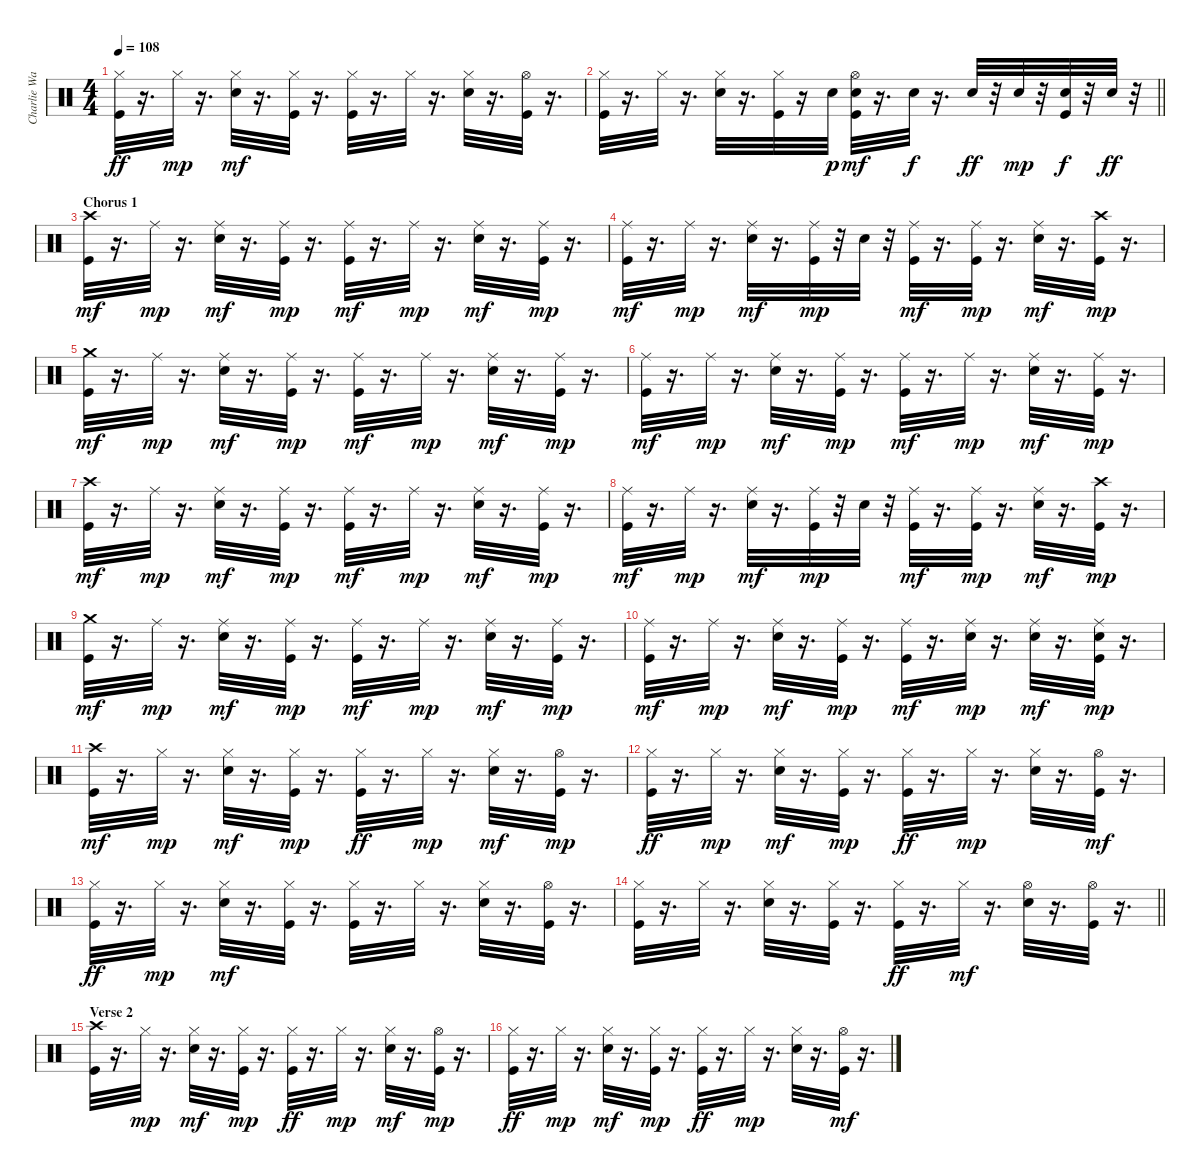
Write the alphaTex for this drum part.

\track ("Charlie Watts" "Charlie Wa") {instrument percussion}
\staff {score}
\articulation defaults
\ts (4 4)
\tempo 108
\clef neutral
\ks c
("Kick (hit)" "Hi-Hat (closed)").32{dy ff} r.16{d} "Hi-Hat (closed)".32{dy mp} r.16{d} ("Electric Snare (hit)" "Hi-Hat (closed)").32{dy mf} r.16{d} ("Kick (hit)" "Hi-Hat (closed)").32 r.16{d} ("Kick (hit)" "Hi-Hat (closed)").32 r.16{d} "Hi-Hat (closed)".32 r.16{d} ("Electric Snare (hit)" "Hi-Hat (closed)").32 r.16{d} ("Kick (hit)" "Hi-Hat (open)").32 r.16{d} |
\barLineRight lightlight
("Kick (hit)" "Hi-Hat (closed)").32 r.16{d} "Hi-Hat (closed)".32 r.16{d} ("Electric Snare (hit)" "Hi-Hat (closed)").32 r.16{d} ("Kick (hit)" "Hi-Hat (closed)").32 r.16 "Electric Snare (hit)".32{dy p} ("Kick (hit)" "Electric Snare (hit)" "Hi-Hat (open)").32{dy mf} r.16{d} "Electric Snare (hit)".32{dy f} r.16{d} "Electric Snare (hit)".32{dy ff} r.32 "Electric Snare (hit)".32{dy mp} r.32 ("Kick (hit)" "Electric Snare (hit)").32{dy f} r.32 "Electric Snare (hit)".32{dy ff} r.32 |
\section ("" "Chorus 1")
("Kick (hit)" "Crash high (hit)").32{dy mf} r.16{d} "Ride (middle)".32{dy mp} r.16{d} ("Electric Snare (hit)" "Ride (middle)").32{dy mf} r.16{d} ("Kick (hit)" "Ride (middle)").32{dy mp} r.16{d} ("Kick (hit)" "Ride (middle)").32{dy mf} r.16{d} "Ride (middle)".32{dy mp} r.16{d} ("Electric Snare (hit)" "Ride (middle)").32{dy mf} r.16{d} ("Kick (hit)" "Ride (middle)").32{dy mp} r.16{d} |
("Kick (hit)" "Ride (middle)").32{dy mf} r.16{d} "Ride (middle)".32{dy mp} r.16{d} ("Electric Snare (hit)" "Ride (middle)").32{dy mf} r.16{d} ("Kick (hit)" "Ride (middle)").32{dy mp} r.32 "Electric Snare (hit)".32 r.32 ("Kick (hit)" "Ride (middle)").32{dy mf} r.16{d} ("Kick (hit)" "Ride (middle)").32{dy mp} r.16{d} ("Electric Snare (hit)" "Ride (middle)").32{dy mf} r.16{d} ("Kick (hit)" "Crash high (hit)").32{dy mp} r.16{d} |
("Kick (hit)" "Crash medium (hit)").32{dy mf} r.16{d} "Ride (middle)".32{dy mp} r.16{d} ("Electric Snare (hit)" "Ride (middle)").32{dy mf} r.16{d} ("Kick (hit)" "Ride (middle)").32{dy mp} r.16{d} ("Kick (hit)" "Ride (middle)").32{dy mf} r.16{d} "Ride (middle)".32{dy mp} r.16{d} ("Electric Snare (hit)" "Ride (middle)").32{dy mf} r.16{d} ("Kick (hit)" "Ride (middle)").32{dy mp} r.16{d} |
("Kick (hit)" "Ride (middle)").32{dy mf} r.16{d} "Ride (middle)".32{dy mp} r.16{d} ("Electric Snare (hit)" "Ride (middle)").32{dy mf} r.16{d} ("Kick (hit)" "Ride (middle)").32{dy mp} r.16{d} ("Kick (hit)" "Ride (middle)").32{dy mf} r.16{d} "Ride (middle)".32{dy mp} r.16{d} ("Electric Snare (hit)" "Ride (middle)").32{dy mf} r.16{d} ("Kick (hit)" "Ride (middle)").32{dy mp} r.16{d} |
("Kick (hit)" "Crash high (hit)").32{dy mf} r.16{d} "Ride (middle)".32{dy mp} r.16{d} ("Electric Snare (hit)" "Ride (middle)").32{dy mf} r.16{d} ("Kick (hit)" "Ride (middle)").32{dy mp} r.16{d} ("Kick (hit)" "Ride (middle)").32{dy mf} r.16{d} "Ride (middle)".32{dy mp} r.16{d} ("Electric Snare (hit)" "Ride (middle)").32{dy mf} r.16{d} ("Kick (hit)" "Ride (middle)").32{dy mp} r.16{d} |
("Kick (hit)" "Ride (middle)").32{dy mf} r.16{d} "Ride (middle)".32{dy mp} r.16{d} ("Electric Snare (hit)" "Ride (middle)").32{dy mf} r.16{d} ("Kick (hit)" "Ride (middle)").32{dy mp} r.32 "Electric Snare (hit)".32 r.32 ("Kick (hit)" "Ride (middle)").32{dy mf} r.16{d} ("Kick (hit)" "Ride (middle)").32{dy mp} r.16{d} ("Electric Snare (hit)" "Ride (middle)").32{dy mf} r.16{d} ("Kick (hit)" "Crash high (hit)").32{dy mp} r.16{d} |
("Kick (hit)" "Crash medium (hit)").32{dy mf} r.16{d} "Ride (middle)".32{dy mp} r.16{d} ("Electric Snare (hit)" "Ride (middle)").32{dy mf} r.16{d} ("Kick (hit)" "Ride (middle)").32{dy mp} r.16{d} ("Kick (hit)" "Ride (middle)").32{dy mf} r.16{d} "Ride (middle)".32{dy mp} r.16{d} ("Electric Snare (hit)" "Ride (middle)").32{dy mf} r.16{d} ("Kick (hit)" "Ride (middle)").32{dy mp} r.16{d} |
("Kick (hit)" "Ride (middle)").32{dy mf} r.16{d} "Ride (middle)".32{dy mp} r.16{d} ("Electric Snare (hit)" "Ride (middle)").32{dy mf} r.16{d} ("Kick (hit)" "Ride (middle)").32{dy mp} r.16{d} ("Kick (hit)" "Ride (middle)").32{dy mf} r.16{d} ("Electric Snare (hit)" "Ride (middle)").32{dy mp} r.16{d} ("Electric Snare (hit)" "Ride (middle)").32{dy mf} r.16{d} ("Kick (hit)" "Electric Snare (hit)" "Ride (middle)").32{dy mp} r.16{d} |
("Kick (hit)" "Crash high (hit)").32{dy mf} r.16{d} "Hi-Hat (closed)".32{dy mp} r.16{d} ("Electric Snare (hit)" "Hi-Hat (closed)").32{dy mf} r.16{d} ("Kick (hit)" "Hi-Hat (closed)").32{dy mp} r.16{d} ("Kick (hit)" "Hi-Hat (closed)").32{dy ff} r.16{d} "Hi-Hat (closed)".32{dy mp} r.16{d} ("Electric Snare (hit)" "Hi-Hat (closed)").32{dy mf} r.16{d} ("Kick (hit)" "Hi-Hat (open)").32{dy mp} r.16{d} |
("Kick (hit)" "Hi-Hat (closed)").32{dy ff} r.16{d} "Hi-Hat (closed)".32{dy mp} r.16{d} ("Electric Snare (hit)" "Hi-Hat (closed)").32{dy mf} r.16{d} ("Kick (hit)" "Hi-Hat (closed)").32{dy mp} r.16{d} ("Kick (hit)" "Hi-Hat (closed)").32{dy ff} r.16{d} "Hi-Hat (closed)".32{dy mp} r.16{d} ("Electric Snare (hit)" "Hi-Hat (closed)").32 r.16{d} ("Kick (hit)" "Hi-Hat (open)").32{dy mf} r.16{d} |
("Kick (hit)" "Hi-Hat (closed)").32{dy ff} r.16{d} "Hi-Hat (closed)".32{dy mp} r.16{d} ("Electric Snare (hit)" "Hi-Hat (closed)").32{dy mf} r.16{d} ("Kick (hit)" "Hi-Hat (closed)").32 r.16{d} ("Kick (hit)" "Hi-Hat (closed)").32 r.16{d} "Hi-Hat (closed)".32 r.16{d} ("Electric Snare (hit)" "Hi-Hat (closed)").32 r.16{d} ("Kick (hit)" "Hi-Hat (open)").32 r.16{d} |
\barLineRight lightlight
("Kick (hit)" "Hi-Hat (closed)").32 r.16{d} "Hi-Hat (closed)".32 r.16{d} ("Electric Snare (hit)" "Hi-Hat (closed)").32 r.16{d} ("Kick (hit)" "Hi-Hat (closed)").32 r.16{d} ("Kick (hit)" "Hi-Hat (closed)").32{dy ff} r.16{d} "Hi-Hat (closed)".32{dy mf} r.16{d} ("Electric Snare (hit)" "Hi-Hat (open)").32 r.16{d} ("Kick (hit)" "Hi-Hat (open)").32 r.16{d} |
\section ("" "Verse 2")
("Kick (hit)" "Crash high (hit)").32 r.16{d} "Hi-Hat (closed)".32{dy mp} r.16{d} ("Electric Snare (hit)" "Hi-Hat (closed)").32{dy mf} r.16{d} ("Kick (hit)" "Hi-Hat (closed)").32{dy mp} r.16{d} ("Kick (hit)" "Hi-Hat (closed)").32{dy ff} r.16{d} "Hi-Hat (closed)".32{dy mp} r.16{d} ("Electric Snare (hit)" "Hi-Hat (closed)").32{dy mf} r.16{d} ("Kick (hit)" "Hi-Hat (open)").32{dy mp} r.16{d} |
("Kick (hit)" "Hi-Hat (closed)").32{dy ff} r.16{d} "Hi-Hat (closed)".32{dy mp} r.16{d} ("Electric Snare (hit)" "Hi-Hat (closed)").32{dy mf} r.16{d} ("Kick (hit)" "Hi-Hat (closed)").32{dy mp} r.16{d} ("Kick (hit)" "Hi-Hat (closed)").32{dy ff} r.16{d} "Hi-Hat (closed)".32{dy mp} r.16{d} ("Electric Snare (hit)" "Hi-Hat (closed)").32 r.16{d} ("Kick (hit)" "Hi-Hat (open)").32{dy mf} r.16{d}
